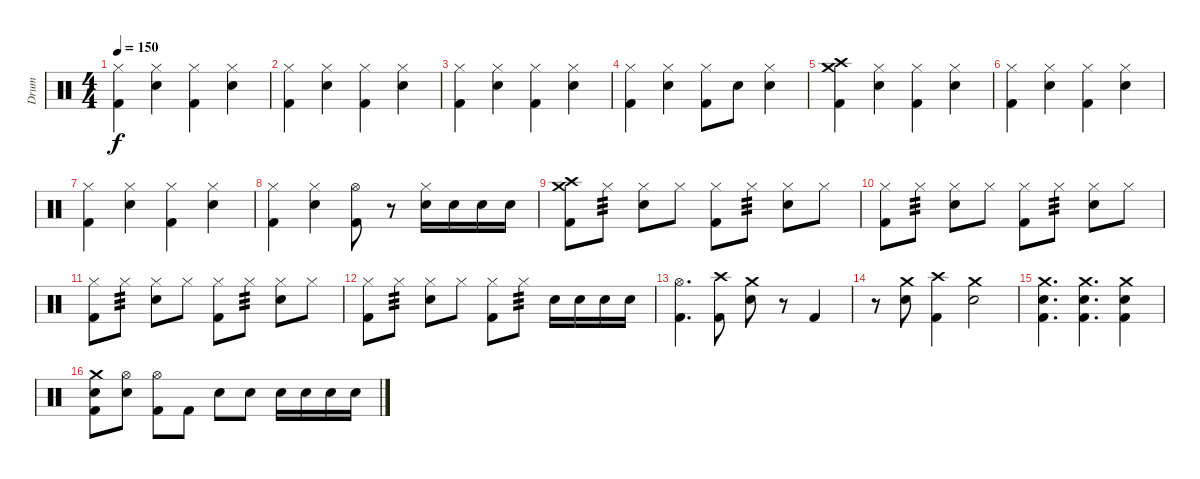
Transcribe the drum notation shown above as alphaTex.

\track ("Drum" "Drum") {instrument percussion}
\staff {score}
\articulation defaults
\ts (4 4)
\tempo 150
\clef neutral
\ks c
("Hi-Hat (closed)" "Kick (hit) 2").4{dy f} ("Hi-Hat (closed)" "Electric Snare (hit)").4 ("Hi-Hat (closed)" "Kick (hit) 2").4 ("Hi-Hat (closed)" "Electric Snare (hit)").4 |
("Hi-Hat (closed)" "Kick (hit) 2").4 ("Hi-Hat (closed)" "Electric Snare (hit)").4 ("Hi-Hat (closed)" "Kick (hit) 2").4 ("Hi-Hat (closed)" "Electric Snare (hit)").4 |
("Hi-Hat (closed)" "Kick (hit) 2").4 ("Hi-Hat (closed)" "Electric Snare (hit)").4 ("Hi-Hat (closed)" "Kick (hit) 2").4 ("Hi-Hat (closed)" "Electric Snare (hit)").4 |
("Hi-Hat (closed)" "Kick (hit) 2").4 ("Hi-Hat (closed)" "Electric Snare (hit)").4 ("Hi-Hat (closed)" "Kick (hit) 2").8 "Electric Snare (hit)".8 ("Hi-Hat (closed)" "Electric Snare (hit)").4 |
("Crash high (hit)" "Crash medium (hit)" "Kick (hit) 2").4 ("Hi-Hat (closed)" "Electric Snare (hit)").4 ("Hi-Hat (closed)" "Kick (hit) 2").4 ("Hi-Hat (closed)" "Electric Snare (hit)").4 |
("Hi-Hat (closed)" "Kick (hit) 2").4 ("Hi-Hat (closed)" "Electric Snare (hit)").4 ("Hi-Hat (closed)" "Kick (hit) 2").4 ("Hi-Hat (closed)" "Electric Snare (hit)").4 |
("Hi-Hat (closed)" "Kick (hit) 2").4 ("Hi-Hat (closed)" "Electric Snare (hit)").4 ("Hi-Hat (closed)" "Kick (hit) 2").4 ("Hi-Hat (closed)" "Electric Snare (hit)").4 |
("Hi-Hat (closed)" "Kick (hit) 2").4 ("Hi-Hat (closed)" "Electric Snare (hit)").4 ("Hi-Hat (open)" "Kick (hit) 2").8 r.8 ("Hi-Hat (closed)" "Electric Snare (hit)").16 "Electric Snare (hit)".16 "Electric Snare (hit)".16 "Electric Snare (hit)".16 |
("Crash high (hit)" "Crash medium (hit)" "Kick (hit) 2").8 "Hi-Hat (closed)".8{tp 3} ("Hi-Hat (closed)" "Electric Snare (hit)").8 "Hi-Hat (closed)".8 ("Hi-Hat (closed)" "Kick (hit) 2").8 "Hi-Hat (closed)".8{tp 3} ("Hi-Hat (closed)" "Electric Snare (hit)").8 "Hi-Hat (closed)".8 |
("Hi-Hat (closed)" "Kick (hit) 2").8 "Hi-Hat (closed)".8{tp 3} ("Hi-Hat (closed)" "Electric Snare (hit)").8 "Hi-Hat (closed)".8 ("Hi-Hat (closed)" "Kick (hit) 2").8 "Hi-Hat (closed)".8{tp 3} ("Hi-Hat (closed)" "Electric Snare (hit)").8 "Hi-Hat (closed)".8 |
("Hi-Hat (closed)" "Kick (hit) 2").8 "Hi-Hat (closed)".8{tp 3} ("Hi-Hat (closed)" "Electric Snare (hit)").8 "Hi-Hat (closed)".8 ("Hi-Hat (closed)" "Kick (hit) 2").8 "Hi-Hat (closed)".8{tp 3} ("Hi-Hat (closed)" "Electric Snare (hit)").8 "Hi-Hat (closed)".8 |
("Hi-Hat (closed)" "Kick (hit) 2").8 "Hi-Hat (closed)".8{tp 3} ("Hi-Hat (closed)" "Electric Snare (hit)").8 "Hi-Hat (closed)".8 ("Hi-Hat (closed)" "Kick (hit) 2").8 "Hi-Hat (closed)".8{tp 3} "Electric Snare (hit)".16 "Electric Snare (hit)".16 "Electric Snare (hit)".16 "Electric Snare (hit)".16 |
("Hi-Hat (open)" "Kick (hit) 2").4{d} ("Crash high (hit)" "Kick (hit) 2").8 ("Crash medium (hit)" "Electric Snare (hit)").8 r.8 "Kick (hit) 2".4 |
r.8 ("Crash medium (hit)" "Electric Snare (hit)").8 ("Crash high (hit)" "Kick (hit) 2").4 ("Crash medium (hit)" "Electric Snare (hit)").2 |
("Crash medium (hit)" "Electric Snare (hit)" "Kick (hit) 2").4{d} ("Crash medium (hit)" "Electric Snare (hit)" "Kick (hit) 2").4{d} ("Crash medium (hit)" "Electric Snare (hit)" "Kick (hit) 2").4 |
("Crash medium (hit)" "Electric Snare (hit)" "Kick (hit) 2").8 ("Hi-Hat (open)" "Electric Snare (hit)").8 ("Hi-Hat (open)" "Kick (hit) 2").8 "Kick (hit) 2".8 "Electric Snare (hit)".8 "Electric Snare (hit)".8 "Electric Snare (hit)".16 "Electric Snare (hit)".16 "Electric Snare (hit)".16 "Electric Snare (hit)".16
